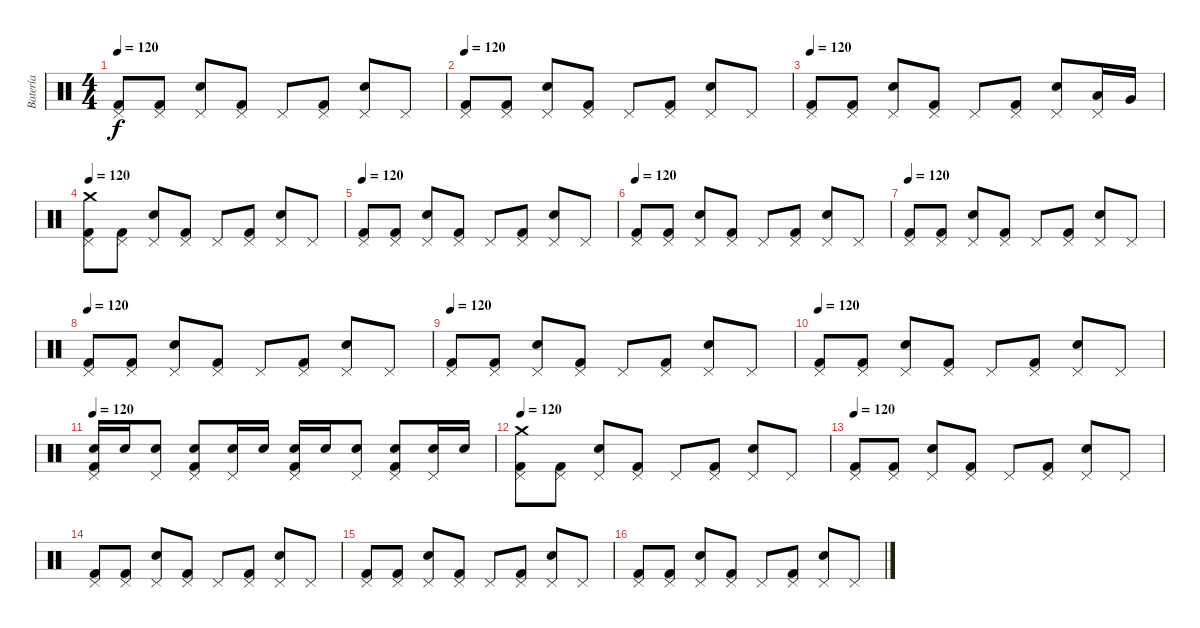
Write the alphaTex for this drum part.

\track ("Batería" "Batería") {instrument percussion}
\staff {score}
\articulation defaults
\ts (4 4)
\tempo 120
\clef neutral
\ks c
("Pedal Hi-Hat (hit)" "Kick (hit) 2").8{dy f} ("Pedal Hi-Hat (hit)" "Kick (hit) 2").8 ("Pedal Hi-Hat (hit)" "Snare (hit) 2").8 ("Pedal Hi-Hat (hit)" "Kick (hit) 2").8 "Pedal Hi-Hat (hit)".8 ("Pedal Hi-Hat (hit)" "Kick (hit) 2").8 ("Pedal Hi-Hat (hit)" "Snare (hit) 2").8 "Pedal Hi-Hat (hit)".8 |
\tempo 120
("Pedal Hi-Hat (hit)" "Kick (hit) 2").8 ("Pedal Hi-Hat (hit)" "Kick (hit) 2").8 ("Pedal Hi-Hat (hit)" "Snare (hit) 2").8 ("Pedal Hi-Hat (hit)" "Kick (hit) 2").8 "Pedal Hi-Hat (hit)".8 ("Pedal Hi-Hat (hit)" "Kick (hit) 2").8 ("Pedal Hi-Hat (hit)" "Snare (hit) 2").8 "Pedal Hi-Hat (hit)".8 |
\tempo 120
("Pedal Hi-Hat (hit)" "Kick (hit) 2").8 ("Pedal Hi-Hat (hit)" "Kick (hit) 2").8 ("Pedal Hi-Hat (hit)" "Snare (hit) 2").8 ("Pedal Hi-Hat (hit)" "Kick (hit) 2").8 "Pedal Hi-Hat (hit)".8 ("Pedal Hi-Hat (hit)" "Kick (hit) 2").8 ("Snare (hit) 2" "Pedal Hi-Hat (hit)").8 ("Low Tom (hit)" "Pedal Hi-Hat (hit)").16 "Very Low Tom (hit)".16 |
\tempo 120
("Pedal Hi-Hat (hit)" "Crash medium (hit)" "Kick (hit) 2").8 ("Pedal Hi-Hat (hit)" "Kick (hit) 2").8 ("Pedal Hi-Hat (hit)" "Snare (hit) 2").8 ("Pedal Hi-Hat (hit)" "Kick (hit) 2").8 "Pedal Hi-Hat (hit)".8 ("Pedal Hi-Hat (hit)" "Kick (hit) 2").8 ("Pedal Hi-Hat (hit)" "Snare (hit) 2").8 "Pedal Hi-Hat (hit)".8 |
\tempo 120
("Pedal Hi-Hat (hit)" "Kick (hit) 2").8 ("Pedal Hi-Hat (hit)" "Kick (hit) 2").8 ("Pedal Hi-Hat (hit)" "Snare (hit) 2").8 ("Pedal Hi-Hat (hit)" "Kick (hit) 2").8 "Pedal Hi-Hat (hit)".8 ("Pedal Hi-Hat (hit)" "Kick (hit) 2").8 ("Pedal Hi-Hat (hit)" "Snare (hit) 2").8 "Pedal Hi-Hat (hit)".8 |
\tempo 120
("Pedal Hi-Hat (hit)" "Kick (hit) 2").8 ("Pedal Hi-Hat (hit)" "Kick (hit) 2").8 ("Pedal Hi-Hat (hit)" "Snare (hit) 2").8 ("Pedal Hi-Hat (hit)" "Kick (hit) 2").8 "Pedal Hi-Hat (hit)".8 ("Pedal Hi-Hat (hit)" "Kick (hit) 2").8 ("Pedal Hi-Hat (hit)" "Snare (hit) 2").8 "Pedal Hi-Hat (hit)".8 |
\tempo 120
("Pedal Hi-Hat (hit)" "Kick (hit) 2").8 ("Pedal Hi-Hat (hit)" "Kick (hit) 2").8 ("Pedal Hi-Hat (hit)" "Snare (hit) 2").8 ("Pedal Hi-Hat (hit)" "Kick (hit) 2").8 "Pedal Hi-Hat (hit)".8 ("Pedal Hi-Hat (hit)" "Kick (hit) 2").8 ("Pedal Hi-Hat (hit)" "Snare (hit) 2").8 "Pedal Hi-Hat (hit)".8 |
\tempo 120
("Pedal Hi-Hat (hit)" "Kick (hit) 2").8 ("Pedal Hi-Hat (hit)" "Kick (hit) 2").8 ("Pedal Hi-Hat (hit)" "Snare (hit) 2").8 ("Pedal Hi-Hat (hit)" "Kick (hit) 2").8 "Pedal Hi-Hat (hit)".8 ("Pedal Hi-Hat (hit)" "Kick (hit) 2").8 ("Pedal Hi-Hat (hit)" "Snare (hit) 2").8 "Pedal Hi-Hat (hit)".8 |
\tempo 120
("Pedal Hi-Hat (hit)" "Kick (hit) 2").8 ("Pedal Hi-Hat (hit)" "Kick (hit) 2").8 ("Pedal Hi-Hat (hit)" "Snare (hit) 2").8 ("Pedal Hi-Hat (hit)" "Kick (hit) 2").8 "Pedal Hi-Hat (hit)".8 ("Pedal Hi-Hat (hit)" "Kick (hit) 2").8 ("Pedal Hi-Hat (hit)" "Snare (hit) 2").8 "Pedal Hi-Hat (hit)".8 |
\tempo 120
("Pedal Hi-Hat (hit)" "Kick (hit) 2").8 ("Pedal Hi-Hat (hit)" "Kick (hit) 2").8 ("Pedal Hi-Hat (hit)" "Snare (hit) 2").8 ("Pedal Hi-Hat (hit)" "Kick (hit) 2").8 "Pedal Hi-Hat (hit)".8 ("Pedal Hi-Hat (hit)" "Kick (hit) 2").8 ("Pedal Hi-Hat (hit)" "Snare (hit) 2").8 "Pedal Hi-Hat (hit)".8 |
\tempo 120
("Kick (hit) 2" "Snare (hit) 2" "Pedal Hi-Hat (hit)").16 "Snare (hit) 2".16 ("Snare (hit) 2" "Pedal Hi-Hat (hit)").8 ("Kick (hit) 2" "Snare (hit) 2" "Pedal Hi-Hat (hit)").8 ("Snare (hit) 2" "Pedal Hi-Hat (hit)").16 "Snare (hit) 2".16 ("Kick (hit) 2" "Snare (hit) 2" "Pedal Hi-Hat (hit)").16 "Snare (hit) 2".16 ("Snare (hit) 2" "Pedal Hi-Hat (hit)").8 ("Kick (hit) 2" "Snare (hit) 2" "Pedal Hi-Hat (hit)").8 ("Snare (hit) 2" "Pedal Hi-Hat (hit)").16 "Snare (hit) 2".16 |
\tempo 120
("Pedal Hi-Hat (hit)" "Crash medium (hit)" "Kick (hit) 2").8 ("Pedal Hi-Hat (hit)" "Kick (hit) 2").8 ("Pedal Hi-Hat (hit)" "Snare (hit) 2").8 ("Pedal Hi-Hat (hit)" "Kick (hit) 2").8 "Pedal Hi-Hat (hit)".8 ("Pedal Hi-Hat (hit)" "Kick (hit) 2").8 ("Pedal Hi-Hat (hit)" "Snare (hit) 2").8 "Pedal Hi-Hat (hit)".8 |
\tempo 120
("Pedal Hi-Hat (hit)" "Kick (hit) 2").8 ("Pedal Hi-Hat (hit)" "Kick (hit) 2").8 ("Pedal Hi-Hat (hit)" "Snare (hit) 2").8 ("Pedal Hi-Hat (hit)" "Kick (hit) 2").8 "Pedal Hi-Hat (hit)".8 ("Pedal Hi-Hat (hit)" "Kick (hit) 2").8 ("Pedal Hi-Hat (hit)" "Snare (hit) 2").8 "Pedal Hi-Hat (hit)".8 |
("Pedal Hi-Hat (hit)" "Kick (hit) 2").8 ("Pedal Hi-Hat (hit)" "Kick (hit) 2").8 ("Pedal Hi-Hat (hit)" "Snare (hit) 2").8 ("Pedal Hi-Hat (hit)" "Kick (hit) 2").8 "Pedal Hi-Hat (hit)".8 ("Pedal Hi-Hat (hit)" "Kick (hit) 2").8 ("Pedal Hi-Hat (hit)" "Snare (hit) 2").8 "Pedal Hi-Hat (hit)".8 |
("Pedal Hi-Hat (hit)" "Kick (hit) 2").8 ("Pedal Hi-Hat (hit)" "Kick (hit) 2").8 ("Pedal Hi-Hat (hit)" "Snare (hit) 2").8 ("Pedal Hi-Hat (hit)" "Kick (hit) 2").8 "Pedal Hi-Hat (hit)".8 ("Pedal Hi-Hat (hit)" "Kick (hit) 2").8 ("Pedal Hi-Hat (hit)" "Snare (hit) 2").8 "Pedal Hi-Hat (hit)".8 |
("Pedal Hi-Hat (hit)" "Kick (hit) 2").8 ("Pedal Hi-Hat (hit)" "Kick (hit) 2").8 ("Pedal Hi-Hat (hit)" "Snare (hit) 2").8 ("Pedal Hi-Hat (hit)" "Kick (hit) 2").8 "Pedal Hi-Hat (hit)".8 ("Pedal Hi-Hat (hit)" "Kick (hit) 2").8 ("Pedal Hi-Hat (hit)" "Snare (hit) 2").8 "Pedal Hi-Hat (hit)".8
